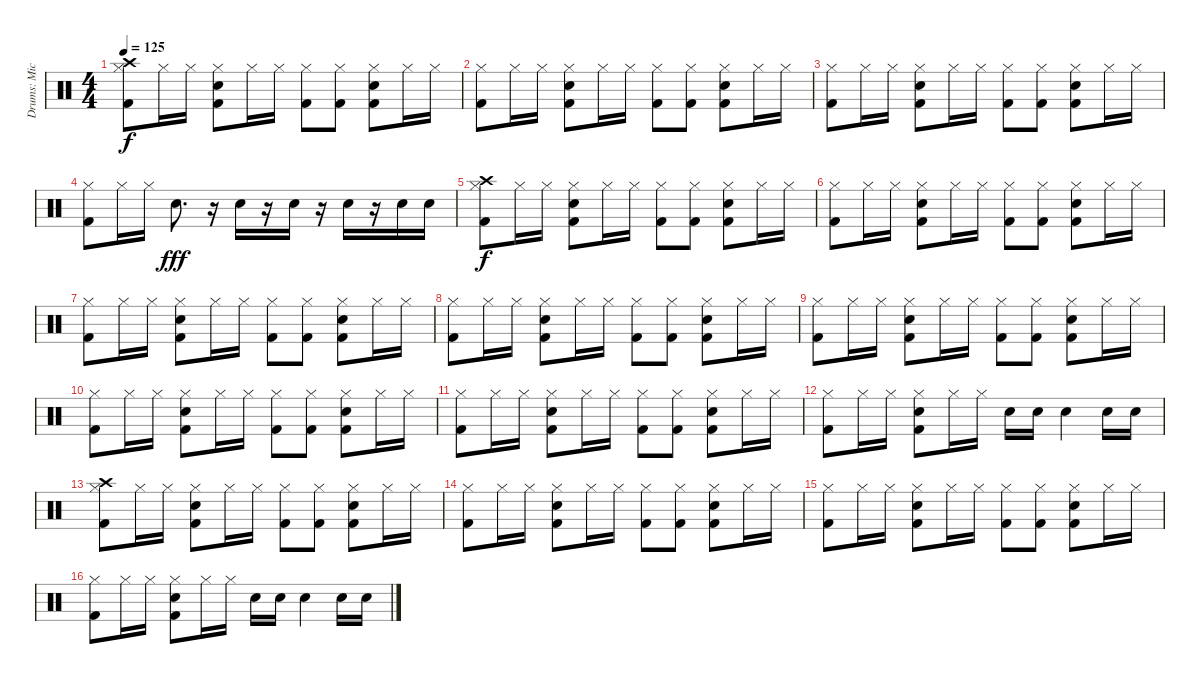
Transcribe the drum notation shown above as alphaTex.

\track ("Drums: Mick Fleetwood" "Drums: Mic") {instrument percussion}
\staff {score}
\articulation defaults
\ts (4 4)
\tempo 125
\clef neutral
\ks c
("Crash high (hit)" "Hi-Hat (closed)" "Kick (hit) 2").8{dy f} "Hi-Hat (closed)".16 "Hi-Hat (closed)".16 ("Hi-Hat (closed)" "Snare (hit) 2" "Kick (hit) 2").8 "Hi-Hat (closed)".16 "Hi-Hat (closed)".16 ("Hi-Hat (closed)" "Kick (hit) 2").8 ("Hi-Hat (closed)" "Kick (hit) 2").8 ("Hi-Hat (closed)" "Snare (hit) 2" "Kick (hit) 2").8 "Hi-Hat (closed)".16 "Hi-Hat (closed)".16 |
("Hi-Hat (closed)" "Kick (hit) 2").8 "Hi-Hat (closed)".16 "Hi-Hat (closed)".16 ("Hi-Hat (closed)" "Snare (hit) 2" "Kick (hit) 2").8 "Hi-Hat (closed)".16 "Hi-Hat (closed)".16 ("Hi-Hat (closed)" "Kick (hit) 2").8 ("Hi-Hat (closed)" "Kick (hit) 2").8 ("Hi-Hat (closed)" "Snare (hit) 2" "Kick (hit) 2").8 "Hi-Hat (closed)".16 "Hi-Hat (closed)".16 |
("Hi-Hat (closed)" "Kick (hit) 2").8 "Hi-Hat (closed)".16 "Hi-Hat (closed)".16 ("Hi-Hat (closed)" "Snare (hit) 2" "Kick (hit) 2").8 "Hi-Hat (closed)".16 "Hi-Hat (closed)".16 ("Hi-Hat (closed)" "Kick (hit) 2").8 ("Hi-Hat (closed)" "Kick (hit) 2").8 ("Hi-Hat (closed)" "Snare (hit) 2" "Kick (hit) 2").8 "Hi-Hat (closed)".16 "Hi-Hat (closed)".16 |
("Hi-Hat (closed)" "Kick (hit) 2").8 "Hi-Hat (closed)".16 "Hi-Hat (closed)".16 "Snare (hit) 2".8{d dy fff} r.16 "Snare (hit) 2".16 r.16 "Snare (hit) 2".16 r.16 "Snare (hit) 2".16 r.16 "Snare (hit) 2".16 "Snare (hit) 2".16 |
("Crash high (hit)" "Hi-Hat (closed)" "Kick (hit) 2").8{dy f} "Hi-Hat (closed)".16 "Hi-Hat (closed)".16 ("Hi-Hat (closed)" "Snare (hit) 2" "Kick (hit) 2").8 "Hi-Hat (closed)".16 "Hi-Hat (closed)".16 ("Hi-Hat (closed)" "Kick (hit) 2").8 ("Hi-Hat (closed)" "Kick (hit) 2").8 ("Hi-Hat (closed)" "Snare (hit) 2" "Kick (hit) 2").8 "Hi-Hat (closed)".16 "Hi-Hat (closed)".16 |
("Hi-Hat (closed)" "Kick (hit) 2").8 "Hi-Hat (closed)".16 "Hi-Hat (closed)".16 ("Hi-Hat (closed)" "Snare (hit) 2" "Kick (hit) 2").8 "Hi-Hat (closed)".16 "Hi-Hat (closed)".16 ("Hi-Hat (closed)" "Kick (hit) 2").8 ("Hi-Hat (closed)" "Kick (hit) 2").8 ("Hi-Hat (closed)" "Snare (hit) 2" "Kick (hit) 2").8 "Hi-Hat (closed)".16 "Hi-Hat (closed)".16 |
("Hi-Hat (closed)" "Kick (hit) 2").8 "Hi-Hat (closed)".16 "Hi-Hat (closed)".16 ("Hi-Hat (closed)" "Snare (hit) 2" "Kick (hit) 2").8 "Hi-Hat (closed)".16 "Hi-Hat (closed)".16 ("Hi-Hat (closed)" "Kick (hit) 2").8 ("Hi-Hat (closed)" "Kick (hit) 2").8 ("Hi-Hat (closed)" "Snare (hit) 2" "Kick (hit) 2").8 "Hi-Hat (closed)".16 "Hi-Hat (closed)".16 |
("Hi-Hat (closed)" "Kick (hit) 2").8 "Hi-Hat (closed)".16 "Hi-Hat (closed)".16 ("Hi-Hat (closed)" "Snare (hit) 2" "Kick (hit) 2").8 "Hi-Hat (closed)".16 "Hi-Hat (closed)".16 ("Hi-Hat (closed)" "Kick (hit) 2").8 ("Hi-Hat (closed)" "Kick (hit) 2").8 ("Hi-Hat (closed)" "Snare (hit) 2" "Kick (hit) 2").8 "Hi-Hat (closed)".16 "Hi-Hat (closed)".16 |
("Hi-Hat (closed)" "Kick (hit) 2").8 "Hi-Hat (closed)".16 "Hi-Hat (closed)".16 ("Hi-Hat (closed)" "Snare (hit) 2" "Kick (hit) 2").8 "Hi-Hat (closed)".16 "Hi-Hat (closed)".16 ("Hi-Hat (closed)" "Kick (hit) 2").8 ("Hi-Hat (closed)" "Kick (hit) 2").8 ("Hi-Hat (closed)" "Snare (hit) 2" "Kick (hit) 2").8 "Hi-Hat (closed)".16 "Hi-Hat (closed)".16 |
("Hi-Hat (closed)" "Kick (hit) 2").8 "Hi-Hat (closed)".16 "Hi-Hat (closed)".16 ("Hi-Hat (closed)" "Snare (hit) 2" "Kick (hit) 2").8 "Hi-Hat (closed)".16 "Hi-Hat (closed)".16 ("Hi-Hat (closed)" "Kick (hit) 2").8 ("Hi-Hat (closed)" "Kick (hit) 2").8 ("Hi-Hat (closed)" "Snare (hit) 2" "Kick (hit) 2").8 "Hi-Hat (closed)".16 "Hi-Hat (closed)".16 |
("Hi-Hat (closed)" "Kick (hit) 2").8 "Hi-Hat (closed)".16 "Hi-Hat (closed)".16 ("Hi-Hat (closed)" "Snare (hit) 2" "Kick (hit) 2").8 "Hi-Hat (closed)".16 "Hi-Hat (closed)".16 ("Hi-Hat (closed)" "Kick (hit) 2").8 ("Hi-Hat (closed)" "Kick (hit) 2").8 ("Hi-Hat (closed)" "Snare (hit) 2" "Kick (hit) 2").8 "Hi-Hat (closed)".16 "Hi-Hat (closed)".16 |
("Hi-Hat (closed)" "Kick (hit) 2").8 "Hi-Hat (closed)".16 "Hi-Hat (closed)".16 ("Hi-Hat (closed)" "Snare (hit) 2" "Kick (hit) 2").8 "Hi-Hat (closed)".16 "Hi-Hat (closed)".16 "Snare (hit) 2".16 "Snare (hit) 2".16 "Snare (hit) 2".4 "Snare (hit) 2".16 "Snare (hit) 2".16 |
("Crash high (hit)" "Hi-Hat (closed)" "Kick (hit) 2").8{volume 0} "Hi-Hat (closed)".16 "Hi-Hat (closed)".16 ("Hi-Hat (closed)" "Snare (hit) 2" "Kick (hit) 2").8 "Hi-Hat (closed)".16 "Hi-Hat (closed)".16 ("Hi-Hat (closed)" "Kick (hit) 2").8 ("Hi-Hat (closed)" "Kick (hit) 2").8 ("Hi-Hat (closed)" "Snare (hit) 2" "Kick (hit) 2").8 "Hi-Hat (closed)".16 "Hi-Hat (closed)".16 |
("Hi-Hat (closed)" "Kick (hit) 2").8 "Hi-Hat (closed)".16 "Hi-Hat (closed)".16 ("Hi-Hat (closed)" "Snare (hit) 2" "Kick (hit) 2").8 "Hi-Hat (closed)".16 "Hi-Hat (closed)".16 ("Hi-Hat (closed)" "Kick (hit) 2").8 ("Hi-Hat (closed)" "Kick (hit) 2").8 ("Hi-Hat (closed)" "Snare (hit) 2" "Kick (hit) 2").8 "Hi-Hat (closed)".16 "Hi-Hat (closed)".16 |
("Hi-Hat (closed)" "Kick (hit) 2").8 "Hi-Hat (closed)".16 "Hi-Hat (closed)".16 ("Hi-Hat (closed)" "Snare (hit) 2" "Kick (hit) 2").8 "Hi-Hat (closed)".16 "Hi-Hat (closed)".16 ("Hi-Hat (closed)" "Kick (hit) 2").8 ("Hi-Hat (closed)" "Kick (hit) 2").8 ("Hi-Hat (closed)" "Snare (hit) 2" "Kick (hit) 2").8 "Hi-Hat (closed)".16 "Hi-Hat (closed)".16 |
("Hi-Hat (closed)" "Kick (hit) 2").8 "Hi-Hat (closed)".16 "Hi-Hat (closed)".16 ("Hi-Hat (closed)" "Snare (hit) 2" "Kick (hit) 2").8 "Hi-Hat (closed)".16 "Hi-Hat (closed)".16 "Snare (hit) 2".16 "Snare (hit) 2".16 "Snare (hit) 2".4 "Snare (hit) 2".16 "Snare (hit) 2".16
